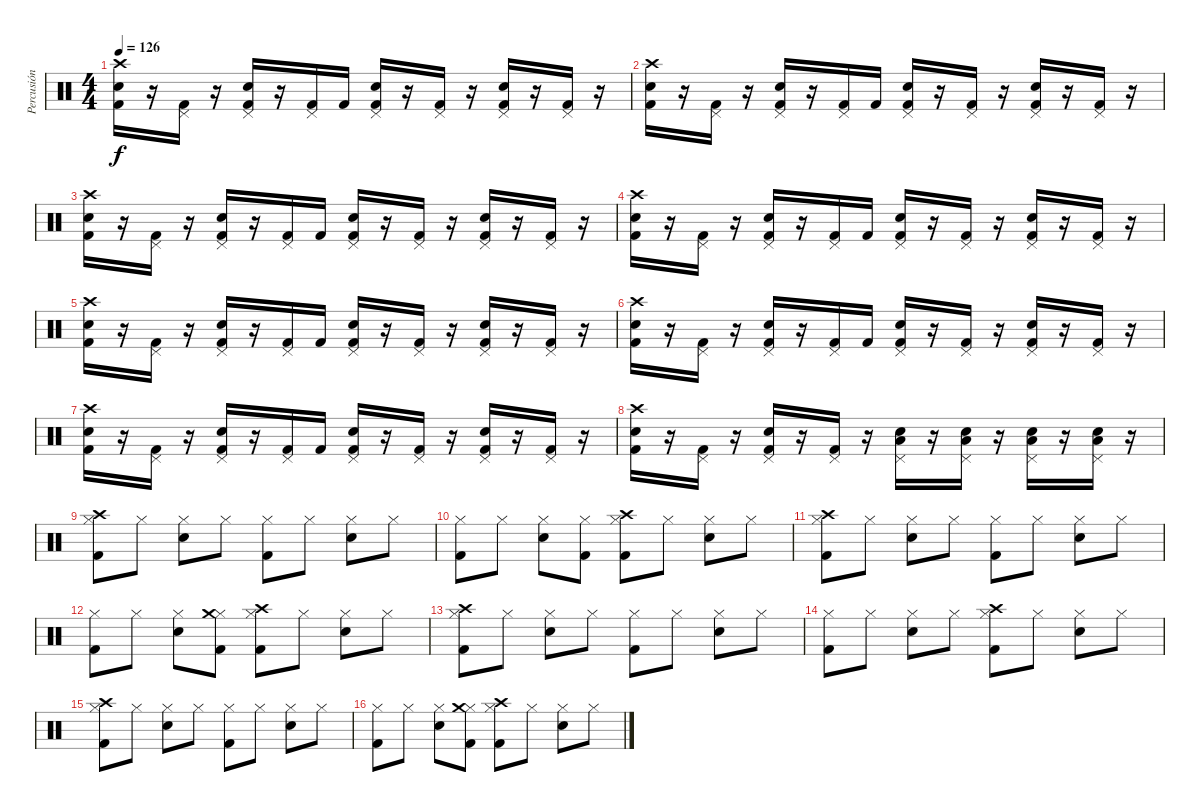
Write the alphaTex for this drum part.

\track ("Percusión" "Percusión") {instrument percussion}
\staff {score}
\articulation defaults
\ts (4 4)
\tempo 126
\clef neutral
\ks c
("Crash high (hit)" "Snare (hit) 2" "Kick (hit) 2").16{dy f} r.16 ("Pedal Hi-Hat (hit)" "Kick (hit) 2").16 r.16 ("Pedal Hi-Hat (hit)" "Snare (hit) 2" "Kick (hit) 2").16 r.16 ("Pedal Hi-Hat (hit)" "Kick (hit) 2").16 "Kick (hit) 2".16 ("Pedal Hi-Hat (hit)" "Snare (hit) 2" "Kick (hit) 2").16 r.16 ("Pedal Hi-Hat (hit)" "Kick (hit) 2").16 r.16 ("Pedal Hi-Hat (hit)" "Snare (hit) 2" "Kick (hit) 2").16 r.16 ("Pedal Hi-Hat (hit)" "Kick (hit) 2").16 r.16 |
("Crash high (hit)" "Snare (hit) 2" "Kick (hit) 2").16 r.16 ("Pedal Hi-Hat (hit)" "Kick (hit) 2").16 r.16 ("Pedal Hi-Hat (hit)" "Snare (hit) 2" "Kick (hit) 2").16 r.16 ("Pedal Hi-Hat (hit)" "Kick (hit) 2").16 "Kick (hit) 2".16 ("Pedal Hi-Hat (hit)" "Snare (hit) 2" "Kick (hit) 2").16 r.16 ("Pedal Hi-Hat (hit)" "Kick (hit) 2").16 r.16 ("Pedal Hi-Hat (hit)" "Snare (hit) 2" "Kick (hit) 2").16 r.16 ("Pedal Hi-Hat (hit)" "Kick (hit) 2").16 r.16 |
("Crash high (hit)" "Snare (hit) 2" "Kick (hit) 2").16 r.16 ("Pedal Hi-Hat (hit)" "Kick (hit) 2").16 r.16 ("Pedal Hi-Hat (hit)" "Snare (hit) 2" "Kick (hit) 2").16 r.16 ("Pedal Hi-Hat (hit)" "Kick (hit) 2").16 "Kick (hit) 2".16 ("Pedal Hi-Hat (hit)" "Snare (hit) 2" "Kick (hit) 2").16 r.16 ("Pedal Hi-Hat (hit)" "Kick (hit) 2").16 r.16 ("Pedal Hi-Hat (hit)" "Snare (hit) 2" "Kick (hit) 2").16 r.16 ("Pedal Hi-Hat (hit)" "Kick (hit) 2").16 r.16 |
("Crash high (hit)" "Snare (hit) 2" "Kick (hit) 2").16 r.16 ("Pedal Hi-Hat (hit)" "Kick (hit) 2").16 r.16 ("Pedal Hi-Hat (hit)" "Snare (hit) 2" "Kick (hit) 2").16 r.16 ("Pedal Hi-Hat (hit)" "Kick (hit) 2").16 "Kick (hit) 2".16 ("Pedal Hi-Hat (hit)" "Snare (hit) 2" "Kick (hit) 2").16 r.16 ("Pedal Hi-Hat (hit)" "Kick (hit) 2").16 r.16 ("Pedal Hi-Hat (hit)" "Snare (hit) 2" "Kick (hit) 2").16 r.16 ("Pedal Hi-Hat (hit)" "Kick (hit) 2").16 r.16 |
("Crash high (hit)" "Snare (hit) 2" "Kick (hit) 2").16 r.16 ("Pedal Hi-Hat (hit)" "Kick (hit) 2").16 r.16 ("Pedal Hi-Hat (hit)" "Snare (hit) 2" "Kick (hit) 2").16 r.16 ("Pedal Hi-Hat (hit)" "Kick (hit) 2").16 "Kick (hit) 2".16 ("Pedal Hi-Hat (hit)" "Snare (hit) 2" "Kick (hit) 2").16 r.16 ("Pedal Hi-Hat (hit)" "Kick (hit) 2").16 r.16 ("Pedal Hi-Hat (hit)" "Snare (hit) 2" "Kick (hit) 2").16 r.16 ("Pedal Hi-Hat (hit)" "Kick (hit) 2").16 r.16 |
("Crash high (hit)" "Snare (hit) 2" "Kick (hit) 2").16 r.16 ("Pedal Hi-Hat (hit)" "Kick (hit) 2").16 r.16 ("Pedal Hi-Hat (hit)" "Snare (hit) 2" "Kick (hit) 2").16 r.16 ("Pedal Hi-Hat (hit)" "Kick (hit) 2").16 "Kick (hit) 2".16 ("Pedal Hi-Hat (hit)" "Snare (hit) 2" "Kick (hit) 2").16 r.16 ("Pedal Hi-Hat (hit)" "Kick (hit) 2").16 r.16 ("Pedal Hi-Hat (hit)" "Snare (hit) 2" "Kick (hit) 2").16 r.16 ("Pedal Hi-Hat (hit)" "Kick (hit) 2").16 r.16 |
("Crash high (hit)" "Snare (hit) 2" "Kick (hit) 2").16 r.16 ("Pedal Hi-Hat (hit)" "Kick (hit) 2").16 r.16 ("Pedal Hi-Hat (hit)" "Snare (hit) 2" "Kick (hit) 2").16 r.16 ("Pedal Hi-Hat (hit)" "Kick (hit) 2").16 "Kick (hit) 2".16 ("Pedal Hi-Hat (hit)" "Snare (hit) 2" "Kick (hit) 2").16 r.16 ("Pedal Hi-Hat (hit)" "Kick (hit) 2").16 r.16 ("Pedal Hi-Hat (hit)" "Snare (hit) 2" "Kick (hit) 2").16 r.16 ("Pedal Hi-Hat (hit)" "Kick (hit) 2").16 r.16 |
("Crash high (hit)" "Snare (hit) 2" "Kick (hit) 2").16 r.16 ("Pedal Hi-Hat (hit)" "Kick (hit) 2").16 r.16 ("Pedal Hi-Hat (hit)" "Snare (hit) 2" "Kick (hit) 2").16 r.16 ("Pedal Hi-Hat (hit)" "Kick (hit) 2").16 r.16 ("Pedal Hi-Hat (hit)" "Snare (hit) 2" "Low Tom (hit)").16 r.16 ("Pedal Hi-Hat (hit)" "Snare (hit) 2" "Low Tom (hit)").16 r.16 ("Pedal Hi-Hat (hit)" "Snare (hit) 2" "Low Tom (hit)").16 r.16 ("Pedal Hi-Hat (hit)" "Snare (hit) 2" "Low Tom (hit)").16 r.16 |
("Hi-Hat (closed)" "Crash high (hit)" "Kick (hit) 2").8 "Hi-Hat (closed)".8 ("Hi-Hat (closed)" "Snare (hit) 2").8 "Hi-Hat (closed)".8 ("Hi-Hat (closed)" "Kick (hit) 2").8 "Hi-Hat (closed)".8 ("Hi-Hat (closed)" "Snare (hit) 2").8 "Hi-Hat (closed)".8 |
("Hi-Hat (closed)" "Kick (hit) 2").8 "Hi-Hat (closed)".8 ("Hi-Hat (closed)" "Snare (hit) 2").8 ("Hi-Hat (closed)" "Kick (hit) 2").8 ("Hi-Hat (closed)" "Crash high (hit)" "Kick (hit) 2").8 "Hi-Hat (closed)".8 ("Hi-Hat (closed)" "Snare (hit) 2").8 "Hi-Hat (closed)".8 |
("Hi-Hat (closed)" "Crash high (hit)" "Kick (hit) 2").8 "Hi-Hat (closed)".8 ("Hi-Hat (closed)" "Snare (hit) 2").8 "Hi-Hat (closed)".8 ("Hi-Hat (closed)" "Kick (hit) 2").8 "Hi-Hat (closed)".8 ("Hi-Hat (closed)" "Snare (hit) 2").8 "Hi-Hat (closed)".8 |
("Hi-Hat (closed)" "Kick (hit) 2").8 "Hi-Hat (closed)".8 ("Hi-Hat (closed)" "Snare (hit) 2").8 ("Hi-Hat (closed)" "Crash medium (hit)" "Kick (hit) 2").8 ("Hi-Hat (closed)" "Crash high (hit)" "Kick (hit) 2").8 "Hi-Hat (closed)".8 ("Hi-Hat (closed)" "Snare (hit) 2").8 "Hi-Hat (closed)".8 |
("Hi-Hat (closed)" "Crash high (hit)" "Kick (hit) 2").8 "Hi-Hat (closed)".8 ("Hi-Hat (closed)" "Snare (hit) 2").8 "Hi-Hat (closed)".8 ("Hi-Hat (closed)" "Kick (hit) 2").8 "Hi-Hat (closed)".8 ("Hi-Hat (closed)" "Snare (hit) 2").8 "Hi-Hat (closed)".8 |
("Hi-Hat (closed)" "Kick (hit) 2").8 "Hi-Hat (closed)".8 ("Hi-Hat (closed)" "Snare (hit) 2").8 "Hi-Hat (closed)".8 ("Hi-Hat (closed)" "Crash high (hit)" "Kick (hit) 2").8 "Hi-Hat (closed)".8 ("Hi-Hat (closed)" "Snare (hit) 2").8 "Hi-Hat (closed)".8 |
("Hi-Hat (closed)" "Crash high (hit)" "Kick (hit) 2").8 "Hi-Hat (closed)".8 ("Hi-Hat (closed)" "Snare (hit) 2").8 "Hi-Hat (closed)".8 ("Hi-Hat (closed)" "Kick (hit) 2").8 "Hi-Hat (closed)".8 ("Hi-Hat (closed)" "Snare (hit) 2").8 "Hi-Hat (closed)".8 |
("Hi-Hat (closed)" "Kick (hit) 2").8 "Hi-Hat (closed)".8 ("Hi-Hat (closed)" "Snare (hit) 2").8 ("Hi-Hat (closed)" "Crash medium (hit)" "Kick (hit) 2").8 ("Hi-Hat (closed)" "Crash high (hit)" "Kick (hit) 2").8 "Hi-Hat (closed)".8 ("Hi-Hat (closed)" "Snare (hit) 2").8 "Hi-Hat (closed)".8
